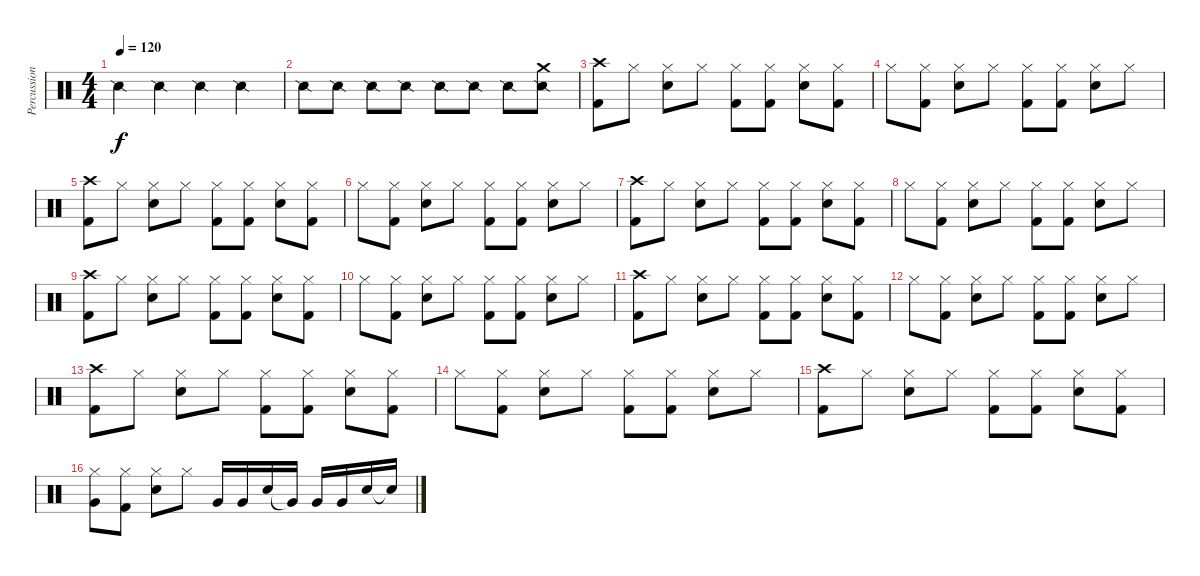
\track ("Percussion" "Percussion") {instrument percussion}
\staff {score}
\articulation defaults
\ts (4 4)
\tempo 120
\clef neutral
\ks c "Snare (side stick) 2".4{dy f} "Snare (side stick) 2".4 "Snare (side stick) 2".4 "Snare (side stick) 2".4
|
"Snare (side stick) 2".8 "Snare (side stick) 2".8 "Snare (side stick) 2".8 "Snare (side stick) 2".8 "Snare (side stick) 2".8 "Snare (side stick) 2".8 "Snare (side stick) 2".8 ("Snare (side stick) 2" "Crash medium (hit)").8 |
("Kick (hit) 2" "Crash high (hit)").8 "Hi-Hat (closed)".8 ("Snare (hit) 2" "Hi-Hat (closed)").8 "Hi-Hat (closed)".8 ("Kick (hit) 2" "Hi-Hat (closed)").8 ("Kick (hit) 2" "Hi-Hat (closed)").8 ("Snare (hit) 2" "Hi-Hat (closed)").8 ("Kick (hit) 2" "Hi-Hat (closed)").8 |
"Hi-Hat (closed)".8 ("Kick (hit) 2" "Hi-Hat (closed)").8 ("Snare (hit) 2" "Hi-Hat (closed)").8 "Hi-Hat (closed)".8 ("Kick (hit) 2" "Hi-Hat (closed)").8 ("Kick (hit) 2" "Hi-Hat (closed)").8 ("Snare (hit) 2" "Hi-Hat (closed)").8 "Hi-Hat (closed)".8 |
("Kick (hit) 2" "Crash high (hit)").8 "Hi-Hat (closed)".8 ("Snare (hit) 2" "Hi-Hat (closed)").8 "Hi-Hat (closed)".8 ("Kick (hit) 2" "Hi-Hat (closed)").8 ("Kick (hit) 2" "Hi-Hat (closed)").8 ("Snare (hit) 2" "Hi-Hat (closed)").8 ("Kick (hit) 2" "Hi-Hat (closed)").8 |
"Hi-Hat (closed)".8 ("Kick (hit) 2" "Hi-Hat (closed)").8 ("Snare (hit) 2" "Hi-Hat (closed)").8 "Hi-Hat (closed)".8 ("Kick (hit) 2" "Hi-Hat (closed)").8 ("Kick (hit) 2" "Hi-Hat (closed)").8 ("Snare (hit) 2" "Hi-Hat (closed)").8 "Hi-Hat (closed)".8 |
("Kick (hit) 2" "Crash high (hit)").8 "Hi-Hat (closed)".8 ("Snare (hit) 2" "Hi-Hat (closed)").8 "Hi-Hat (closed)".8 ("Kick (hit) 2" "Hi-Hat (closed)").8 ("Kick (hit) 2" "Hi-Hat (closed)").8 ("Snare (hit) 2" "Hi-Hat (closed)").8 ("Kick (hit) 2" "Hi-Hat (closed)").8 |
"Hi-Hat (closed)".8 ("Kick (hit) 2" "Hi-Hat (closed)").8 ("Snare (hit) 2" "Hi-Hat (closed)").8 "Hi-Hat (closed)".8 ("Kick (hit) 2" "Hi-Hat (closed)").8 ("Kick (hit) 2" "Hi-Hat (closed)").8 ("Snare (hit) 2" "Hi-Hat (closed)").8 "Hi-Hat (closed)".8 |
("Kick (hit) 2" "Crash high (hit)").8 "Hi-Hat (closed)".8 ("Snare (hit) 2" "Hi-Hat (closed)").8 "Hi-Hat (closed)".8 ("Kick (hit) 2" "Hi-Hat (closed)").8 ("Kick (hit) 2" "Hi-Hat (closed)").8 ("Snare (hit) 2" "Hi-Hat (closed)").8 ("Kick (hit) 2" "Hi-Hat (closed)").8 |
"Hi-Hat (closed)".8 ("Kick (hit) 2" "Hi-Hat (closed)").8 ("Snare (hit) 2" "Hi-Hat (closed)").8 "Hi-Hat (closed)".8 ("Kick (hit) 2" "Hi-Hat (closed)").8 ("Kick (hit) 2" "Hi-Hat (closed)").8 ("Snare (hit) 2" "Hi-Hat (closed)").8 "Hi-Hat (closed)".8 |
("Kick (hit) 2" "Crash high (hit)").8 "Hi-Hat (closed)".8 ("Snare (hit) 2" "Hi-Hat (closed)").8 "Hi-Hat (closed)".8 ("Kick (hit) 2" "Hi-Hat (closed)").8 ("Kick (hit) 2" "Hi-Hat (closed)").8 ("Snare (hit) 2" "Hi-Hat (closed)").8 ("Kick (hit) 2" "Hi-Hat (closed)").8 |
"Hi-Hat (closed)".8 ("Kick (hit) 2" "Hi-Hat (closed)").8 ("Snare (hit) 2" "Hi-Hat (closed)").8 "Hi-Hat (closed)".8 ("Kick (hit) 2" "Hi-Hat (closed)").8 ("Kick (hit) 2" "Hi-Hat (closed)").8 ("Snare (hit) 2" "Hi-Hat (closed)").8 "Hi-Hat (closed)".8 |
("Kick (hit) 2" "Crash high (hit)").8 "Hi-Hat (closed)".8 ("Snare (hit) 2" "Hi-Hat (closed)").8 "Hi-Hat (closed)".8 ("Kick (hit) 2" "Hi-Hat (closed)").8 ("Kick (hit) 2" "Hi-Hat (closed)").8 ("Snare (hit) 2" "Hi-Hat (closed)").8 ("Kick (hit) 2" "Hi-Hat (closed)").8 |
"Hi-Hat (closed)".8 ("Kick (hit) 2" "Hi-Hat (closed)").8 ("Snare (hit) 2" "Hi-Hat (closed)").8 "Hi-Hat (closed)".8 ("Kick (hit) 2" "Hi-Hat (closed)").8 ("Kick (hit) 2" "Hi-Hat (closed)").8 ("Snare (hit) 2" "Hi-Hat (closed)").8 "Hi-Hat (closed)".8 |
("Kick (hit) 2" "Crash high (hit)").8 "Hi-Hat (closed)".8 ("Snare (hit) 2" "Hi-Hat (closed)").8 "Hi-Hat (closed)".8 ("Kick (hit) 2" "Hi-Hat (closed)").8 ("Kick (hit) 2" "Hi-Hat (closed)").8 ("Snare (hit) 2" "Hi-Hat (closed)").8 ("Kick (hit) 2" "Hi-Hat (closed)").8 |
("Very Low Tom (hit)" "Hi-Hat (closed)").8 ("Kick (hit) 2" "Hi-Hat (closed)").8 ("Snare (hit) 2" "Hi-Hat (closed)").8 "Hi-Hat (closed)".8 "Very Low Tom (hit)".16 "Very Low Tom (hit)".16 "Snare (hit) 2".16 "Very Low Tom (hit)"{t}.16 "Very Low Tom (hit)".16 "Very Low Tom (hit)".16 "Snare (hit) 2".16 "Snare (hit)"{t}.16
